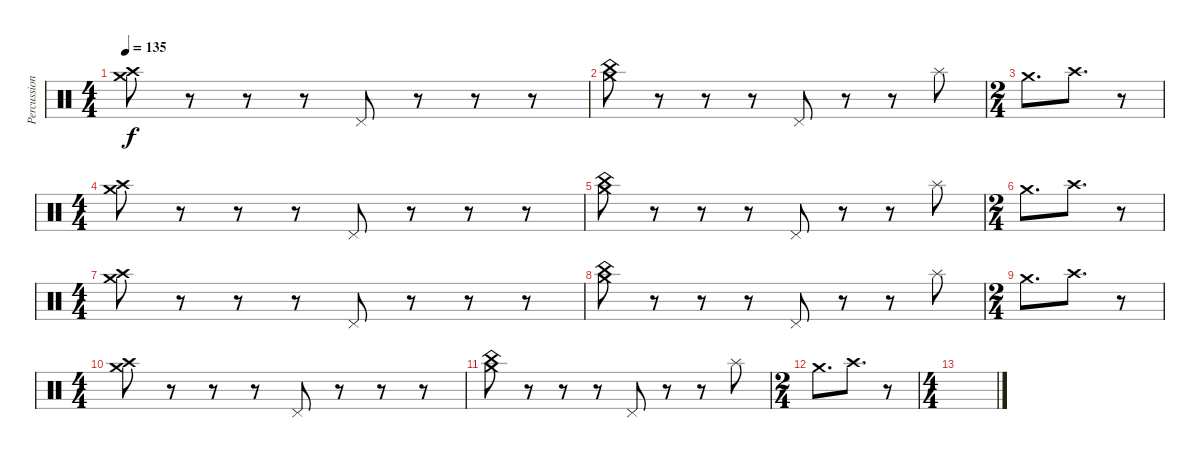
\track ("Percussion" "Percussion") {instrument percussion}
\staff {score}
\articulation defaults
\ts (4 4)
\tempo 135
\clef neutral
\ks c
("Crash medium (hit)" "Crash high (hit)").8{dy f} r.8 r.8 r.8 "Pedal Hi-Hat (hit)".8 r.8 r.8 r.8 |
("China (hit)" "Crash medium (hit)").8 r.8 r.8 r.8 "Pedal Hi-Hat (hit)".8 r.8 r.8 "Splash (hit)".8 |
\ts (2 4)
"Crash medium (hit)".8{d} "Crash high (hit)".8{d} r.8 |
\ts (4 4)
("Crash medium (hit)" "Crash high (hit)").8 r.8 r.8 r.8 "Pedal Hi-Hat (hit)".8 r.8 r.8 r.8 |
("China (hit)" "Crash medium (hit)").8 r.8 r.8 r.8 "Pedal Hi-Hat (hit)".8 r.8 r.8 "Splash (hit)".8 |
\ts (2 4)
"Crash medium (hit)".8{d} "Crash high (hit)".8{d} r.8 |
\ts (4 4)
("Crash medium (hit)" "Crash high (hit)").8 r.8 r.8 r.8 "Pedal Hi-Hat (hit)".8 r.8 r.8 r.8 |
("China (hit)" "Crash medium (hit)").8 r.8 r.8 r.8 "Pedal Hi-Hat (hit)".8 r.8 r.8 "Splash (hit)".8 |
\ts (2 4)
"Crash medium (hit)".8{d} "Crash high (hit)".8{d} r.8 |
\ts (4 4)
("Crash medium (hit)" "Crash high (hit)").8 r.8 r.8 r.8 "Pedal Hi-Hat (hit)".8 r.8 r.8 r.8 |
("China (hit)" "Crash medium (hit)").8 r.8 r.8 r.8 "Pedal Hi-Hat (hit)".8 r.8 r.8 "Splash (hit)".8 |
\ts (2 4)
"Crash medium (hit)".8{d} "Crash high (hit)".8{d} r.8 |
\ts (4 4)
